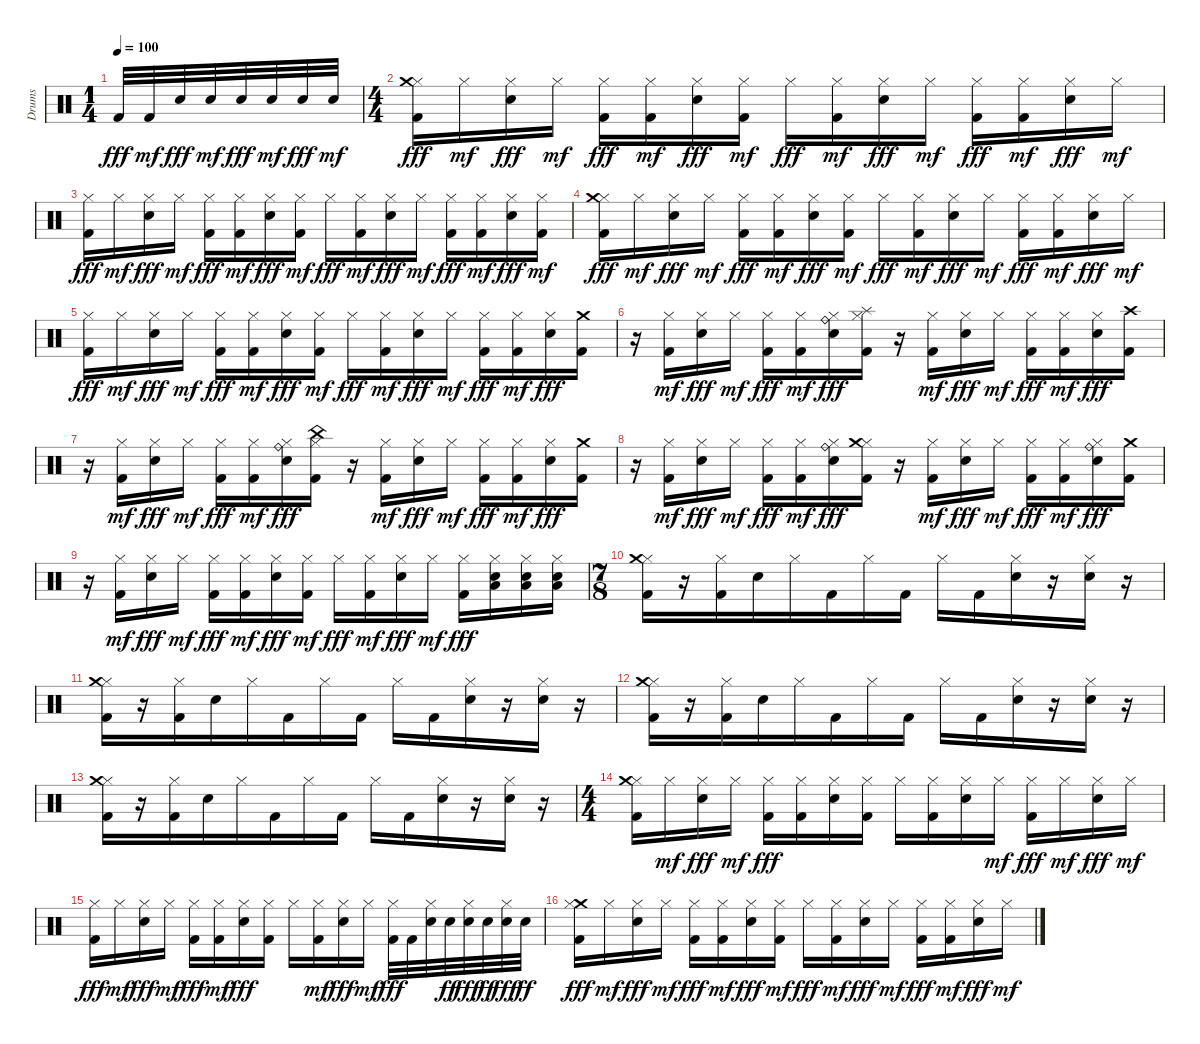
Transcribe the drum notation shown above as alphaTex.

\track ("Drums" "Drums") {instrument percussion}
\staff {score}
\articulation defaults
\ts (1 4)
\tempo 100
\clef neutral
\ks c "Kick (hit) 2".32{dy fff} "Kick (hit) 2".32{dy mf} "Snare (hit) 2".32{dy fff} "Snare (hit) 2".32{dy mf} "Snare (hit) 2".32{dy fff} "Snare (hit) 2".32{dy mf} "Snare (hit) 2".32{dy fff} "Snare (hit) 2".32{dy mf}
|
\ts (4 4)
("Kick (hit) 2" "Hi-Hat (closed)" "Crash medium (hit)").16{dy fff} "Hi-Hat (closed)".16{dy mf} ("Snare (hit) 2" "Hi-Hat (closed)").16{dy fff} "Hi-Hat (closed)".16{dy mf} ("Kick (hit) 2" "Hi-Hat (closed)").16{dy fff} ("Kick (hit) 2" "Hi-Hat (closed)").16{dy mf} ("Snare (hit) 2" "Hi-Hat (closed)").16{dy fff} ("Kick (hit) 2" "Hi-Hat (closed)").16{dy mf} "Hi-Hat (closed)".16{dy fff} ("Kick (hit) 2" "Hi-Hat (closed)").16{dy mf} ("Snare (hit) 2" "Hi-Hat (closed)").16{dy fff} "Hi-Hat (closed)".16{dy mf} ("Kick (hit) 2" "Hi-Hat (closed)").16{dy fff} ("Kick (hit) 2" "Hi-Hat (closed)").16{dy mf} ("Snare (hit) 2" "Hi-Hat (closed)").16{dy fff} "Hi-Hat (closed)".16{dy mf} |
("Kick (hit) 2" "Hi-Hat (closed)").16{dy fff} "Hi-Hat (closed)".16{dy mf} ("Snare (hit) 2" "Hi-Hat (closed)").16{dy fff} "Hi-Hat (closed)".16{dy mf} ("Kick (hit) 2" "Hi-Hat (closed)").16{dy fff} ("Kick (hit) 2" "Hi-Hat (closed)").16{dy mf} ("Snare (hit) 2" "Hi-Hat (closed)").16{dy fff} ("Kick (hit) 2" "Hi-Hat (closed)").16{dy mf} "Hi-Hat (closed)".16{dy fff} ("Kick (hit) 2" "Hi-Hat (closed)").16{dy mf} ("Snare (hit) 2" "Hi-Hat (closed)").16{dy fff} "Hi-Hat (closed)".16{dy mf} ("Kick (hit) 2" "Hi-Hat (closed)").16{dy fff} ("Kick (hit) 2" "Hi-Hat (closed)").16{dy mf} ("Snare (hit) 2" "Hi-Hat (closed)").16{dy fff} ("Kick (hit) 2" "Hi-Hat (closed)").16{dy mf} |
("Kick (hit) 2" "Hi-Hat (closed)" "Crash medium (hit)").16{dy fff} "Hi-Hat (closed)".16{dy mf} ("Snare (hit) 2" "Hi-Hat (closed)").16{dy fff} "Hi-Hat (closed)".16{dy mf} ("Kick (hit) 2" "Hi-Hat (closed)").16{dy fff} ("Kick (hit) 2" "Hi-Hat (closed)").16{dy mf} ("Snare (hit) 2" "Hi-Hat (closed)").16{dy fff} ("Kick (hit) 2" "Hi-Hat (closed)").16{dy mf} "Hi-Hat (closed)".16{dy fff} ("Kick (hit) 2" "Hi-Hat (closed)").16{dy mf} ("Snare (hit) 2" "Hi-Hat (closed)").16{dy fff} "Hi-Hat (closed)".16{dy mf} ("Kick (hit) 2" "Hi-Hat (closed)").16{dy fff} ("Kick (hit) 2" "Hi-Hat (closed)").16{dy mf} ("Snare (hit) 2" "Hi-Hat (closed)").16{dy fff} "Hi-Hat (closed)".16{dy mf} |
("Kick (hit) 2" "Hi-Hat (closed)").16{dy fff} "Hi-Hat (closed)".16{dy mf} ("Snare (hit) 2" "Hi-Hat (closed)").16{dy fff} "Hi-Hat (closed)".16{dy mf} ("Kick (hit) 2" "Hi-Hat (closed)").16{dy fff} ("Kick (hit) 2" "Hi-Hat (closed)").16{dy mf} ("Snare (hit) 2" "Hi-Hat (closed)").16{dy fff} ("Kick (hit) 2" "Hi-Hat (closed)").16{dy mf} "Hi-Hat (closed)".16{dy fff} ("Kick (hit) 2" "Hi-Hat (closed)").16{dy mf} ("Snare (hit) 2" "Hi-Hat (closed)").16{dy fff} "Hi-Hat (closed)".16{dy mf} ("Kick (hit) 2" "Hi-Hat (closed)").16{dy fff} ("Kick (hit) 2" "Hi-Hat (closed)").16{dy mf} ("Snare (hit) 2" "Hi-Hat (closed)").16{dy fff} ("Kick (hit) 2" "Crash medium (hit)").16 |
r.16 ("Kick (hit) 2" "Hi-Hat (closed)").16{dy mf} ("Snare (hit) 2" "Hi-Hat (closed)").16{dy fff} "Hi-Hat (closed)".16{dy mf} ("Kick (hit) 2" "Hi-Hat (closed)").16{dy fff} ("Kick (hit) 2" "Hi-Hat (closed)").16{dy mf} ("Snare (hit) 2" "Hi-Hat (closed)" "Ride (bell)").16{dy fff} ("Kick (hit) 2" "Hi-Hat (closed)" "Splash (hit)").16 r.16 ("Kick (hit) 2" "Hi-Hat (closed)").16{dy mf} ("Snare (hit) 2" "Hi-Hat (closed)").16{dy fff} "Hi-Hat (closed)".16{dy mf} ("Kick (hit) 2" "Hi-Hat (closed)").16{dy fff} ("Kick (hit) 2" "Hi-Hat (closed)").16{dy mf} ("Snare (hit) 2" "Hi-Hat (closed)").16{dy fff} ("Kick (hit) 2" "Crash high (hit)").16 |
r.16 ("Kick (hit) 2" "Hi-Hat (closed)").16{dy mf} ("Snare (hit) 2" "Hi-Hat (closed)").16{dy fff} "Hi-Hat (closed)".16{dy mf} ("Kick (hit) 2" "Hi-Hat (closed)").16{dy fff} ("Kick (hit) 2" "Hi-Hat (closed)").16{dy mf} ("Snare (hit) 2" "Hi-Hat (closed)" "Ride (bell)").16{dy fff} ("Kick (hit) 2" "Hi-Hat (closed)" "China (hit)").16 r.16 ("Kick (hit) 2" "Hi-Hat (closed)").16{dy mf} ("Snare (hit) 2" "Hi-Hat (closed)").16{dy fff} "Hi-Hat (closed)".16{dy mf} ("Kick (hit) 2" "Hi-Hat (closed)").16{dy fff} ("Kick (hit) 2" "Hi-Hat (closed)").16{dy mf} ("Snare (hit) 2" "Hi-Hat (closed)").16{dy fff} ("Kick (hit) 2" "Crash medium (hit)").16 |
r.16 ("Kick (hit) 2" "Hi-Hat (closed)").16{dy mf} ("Snare (hit) 2" "Hi-Hat (closed)").16{dy fff} "Hi-Hat (closed)".16{dy mf} ("Kick (hit) 2" "Hi-Hat (closed)").16{dy fff} ("Kick (hit) 2" "Hi-Hat (closed)").16{dy mf} ("Snare (hit) 2" "Hi-Hat (closed)" "Ride (bell)").16{dy fff} ("Kick (hit) 2" "Hi-Hat (closed)" "Crash medium (hit)").16 r.16 ("Kick (hit) 2" "Hi-Hat (closed)").16{dy mf} ("Snare (hit) 2" "Hi-Hat (closed)").16{dy fff} "Hi-Hat (closed)".16{dy mf} ("Kick (hit) 2" "Hi-Hat (closed)").16{dy fff} ("Kick (hit) 2" "Hi-Hat (closed)").16{dy mf} ("Snare (hit) 2" "Hi-Hat (closed)" "Ride (bell)").16{dy fff} ("Kick (hit) 2" "Crash medium (hit)").16 |
r.16 ("Kick (hit) 2" "Hi-Hat (closed)").16{dy mf} ("Snare (hit) 2" "Hi-Hat (closed)").16{dy fff} "Hi-Hat (closed)".16{dy mf} ("Kick (hit) 2" "Hi-Hat (closed)").16{dy fff} ("Kick (hit) 2" "Hi-Hat (closed)").16{dy mf} ("Snare (hit) 2" "Hi-Hat (closed)").16{dy fff} ("Kick (hit) 2" "Hi-Hat (closed)").16{dy mf} "Hi-Hat (closed)".16{dy fff} ("Kick (hit) 2" "Hi-Hat (closed)").16{dy mf} ("Snare (hit) 2" "Hi-Hat (closed)").16{dy fff} "Hi-Hat (closed)".16{dy mf} ("Kick (hit) 2" "Hi-Hat (closed)").16{dy fff} ("Snare (hit) 2" "Hi-Hat (closed)" "Low Tom (hit)").16 ("Snare (hit) 2" "Hi-Hat (closed)" "Low Tom (hit)").16 ("Snare (hit) 2" "Hi-Hat (closed)" "Low Tom (hit)").16 |
\ts (7 8)
("Kick (hit) 2" "Hi-Hat (closed)" "Crash medium (hit)").16 r.16 ("Kick (hit) 2" "Hi-Hat (closed)").16 "Snare (hit) 2".16 "Hi-Hat (closed)".16 "Kick (hit) 2".16 "Hi-Hat (closed)".16 "Kick (hit) 2".16 "Hi-Hat (closed)".16 "Kick (hit) 2".16 ("Snare (hit) 2" "Hi-Hat (closed)").16 r.16 ("Snare (hit) 2" "Hi-Hat (closed)").16 r.16 |
("Kick (hit) 2" "Hi-Hat (closed)" "Crash medium (hit)").16 r.16 ("Kick (hit) 2" "Hi-Hat (closed)").16 "Snare (hit) 2".16 "Hi-Hat (closed)".16 "Kick (hit) 2".16 "Hi-Hat (closed)".16 "Kick (hit) 2".16 "Hi-Hat (closed)".16 "Kick (hit) 2".16 ("Snare (hit) 2" "Hi-Hat (closed)").16 r.16 ("Snare (hit) 2" "Hi-Hat (closed)").16 r.16 |
("Kick (hit) 2" "Hi-Hat (closed)" "Crash medium (hit)").16 r.16 ("Kick (hit) 2" "Hi-Hat (closed)").16 "Snare (hit) 2".16 "Hi-Hat (closed)".16 "Kick (hit) 2".16 "Hi-Hat (closed)".16 "Kick (hit) 2".16 "Hi-Hat (closed)".16 "Kick (hit) 2".16 ("Snare (hit) 2" "Hi-Hat (closed)").16 r.16 ("Snare (hit) 2" "Hi-Hat (closed)").16 r.16 |
("Kick (hit) 2" "Hi-Hat (closed)" "Crash medium (hit)").16 r.16 ("Kick (hit) 2" "Hi-Hat (closed)").16 "Snare (hit) 2".16 "Hi-Hat (closed)".16 "Kick (hit) 2".16 "Hi-Hat (closed)".16 "Kick (hit) 2".16 "Hi-Hat (closed)".16 "Kick (hit) 2".16 ("Snare (hit) 2" "Hi-Hat (closed)").16 r.16 ("Snare (hit) 2" "Hi-Hat (closed)").16 r.16 |
\ts (4 4)
("Kick (hit) 2" "Hi-Hat (closed)" "Crash medium (hit)").16 "Hi-Hat (closed)".16{dy mf} ("Snare (hit) 2" "Hi-Hat (closed)").16{dy fff} "Hi-Hat (closed)".16{dy mf} ("Hi-Hat (closed)" "Kick (hit) 2").16{dy fff} ("Hi-Hat (closed)" "Kick (hit) 2").16 ("Snare (hit) 2" "Hi-Hat (closed)").16 ("Hi-Hat (closed)" "Kick (hit) 2").16 "Hi-Hat (closed)".16 ("Hi-Hat (closed)" "Kick (hit) 2").16 ("Snare (hit) 2" "Hi-Hat (closed)").16 "Hi-Hat (closed)".16{dy mf} ("Kick (hit) 2" "Hi-Hat (closed)").16{dy fff} "Hi-Hat (closed)".16{dy mf} ("Snare (hit) 2" "Hi-Hat (closed)").16{dy fff} "Hi-Hat (closed)".16{dy mf} |
("Hi-Hat (closed)" "Kick (hit) 2").16{dy fff} "Hi-Hat (closed)".16{dy mf} ("Hi-Hat (closed)" "Snare (hit) 2").16{dy fff} "Hi-Hat (closed)".16{dy mf} ("Kick (hit) 2" "Hi-Hat (closed)").16{dy fff} ("Kick (hit) 2" "Hi-Hat (closed)").16{dy mf} ("Snare (hit) 2" "Hi-Hat (closed)").16{dy fff} ("Hi-Hat (closed)" "Kick (hit) 2").16 "Hi-Hat (closed)".16 ("Kick (hit) 2" "Hi-Hat (closed)").16{dy mf} ("Snare (hit) 2" "Hi-Hat (closed)").16{dy fff} "Hi-Hat (closed)".16{dy mf} ("Hi-Hat (closed)" "Kick (hit) 2").32{dy fff} "Kick (hit) 2".32 ("Hi-Hat (closed)" "Snare (hit) 2").32 "Snare (hit) 2".32{dy ff} ("Hi-Hat (closed)" "Snare (hit) 2").32{dy fff} "Snare (hit) 2".32{dy ff} ("Hi-Hat (closed)" "Snare (hit) 2").32{dy fff} "Snare (hit) 2".32{dy ff} |
("Crash medium (hit)" "Hi-Hat (closed)" "Kick (hit) 2").16{dy fff} "Hi-Hat (closed)".16{dy mf} ("Snare (hit) 2" "Hi-Hat (closed)").16{dy fff} "Hi-Hat (closed)".16{dy mf} ("Kick (hit) 2" "Hi-Hat (closed)").16{dy fff} ("Kick (hit) 2" "Hi-Hat (closed)").16{dy mf} ("Snare (hit) 2" "Hi-Hat (closed)").16{dy fff} ("Kick (hit) 2" "Hi-Hat (closed)").16{dy mf} "Hi-Hat (closed)".16{dy fff} ("Kick (hit) 2" "Hi-Hat (closed)").16{dy mf} ("Snare (hit) 2" "Hi-Hat (closed)").16{dy fff} "Hi-Hat (closed)".16{dy mf} ("Kick (hit) 2" "Hi-Hat (closed)").16{dy fff} ("Kick (hit) 2" "Hi-Hat (closed)").16{dy mf} ("Snare (hit) 2" "Hi-Hat (closed)").16{dy fff} "Hi-Hat (closed)".16{dy mf}
